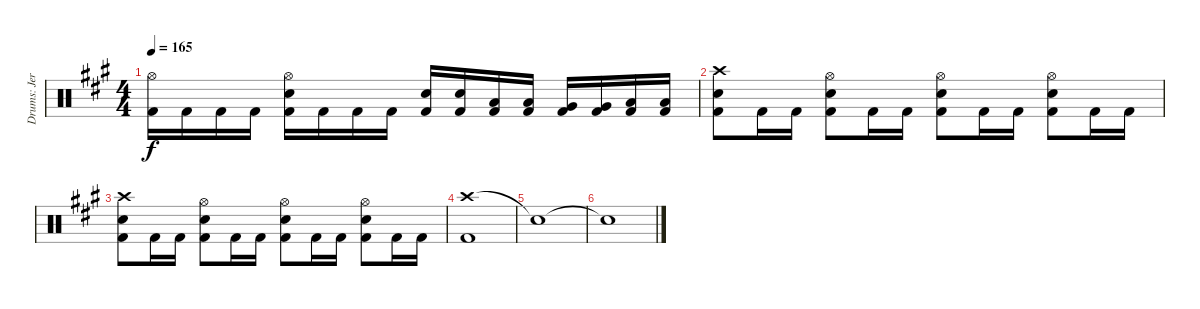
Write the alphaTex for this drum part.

\track ("Drums: Jere Luokkamäki" "Drums: Jer") {instrument percussion}
\staff {score}
\articulation defaults
\ts (4 4)
\tempo 165
\clef neutral
\ks f#minor
("Hi-Hat (open)" "Kick (hit) 2").16{dy f} "Kick (hit) 2".16 "Kick (hit) 2".16 "Kick (hit) 2".16 ("Hi-Hat (open)" "Electric Snare (hit)" "Kick (hit) 2").16 "Kick (hit) 2".16 "Kick (hit) 2".16 "Kick (hit) 2".16 ("Electric Snare (hit)" "Kick (hit) 2").16 ("Electric Snare (hit)" "Kick (hit) 2").16 ("Low Tom (hit)" "Kick (hit) 2").16 ("Low Tom (hit)" "Kick (hit) 2").16 ("Very Low Tom (hit)" "Kick (hit) 2").16 ("Very Low Tom (hit)" "Kick (hit) 2").16 ("Low Tom (hit)" "Kick (hit) 2").16 ("Low Tom (hit)" "Kick (hit) 2").16 |
("Crash high (hit)" "Electric Snare (hit)" "Kick (hit) 2").8 "Kick (hit) 2".16 "Kick (hit) 2".16 ("Hi-Hat (open)" "Electric Snare (hit)" "Kick (hit) 2").8 "Kick (hit) 2".16 "Kick (hit) 2".16 ("Hi-Hat (open)" "Electric Snare (hit)" "Kick (hit) 2").8 "Kick (hit) 2".16 "Kick (hit) 2".16 ("Hi-Hat (open)" "Electric Snare (hit)" "Kick (hit) 2").8 "Kick (hit) 2".16 "Kick (hit) 2".16 |
("Crash high (hit)" "Electric Snare (hit)" "Kick (hit) 2").8 "Kick (hit) 2".16 "Kick (hit) 2".16 ("Hi-Hat (open)" "Electric Snare (hit)" "Kick (hit) 2").8 "Kick (hit) 2".16 "Kick (hit) 2".16 ("Hi-Hat (open)" "Electric Snare (hit)" "Kick (hit) 2").8 "Kick (hit) 2".16 "Kick (hit) 2".16 ("Hi-Hat (open)" "Electric Snare (hit)" "Kick (hit) 2").8 "Kick (hit) 2".16 "Kick (hit) 2".16 |
("Crash high (hit)" "Kick (hit) 2").1 |
"Snare (hit)"{t}.1 |
"Snare (hit)"{t}.1
